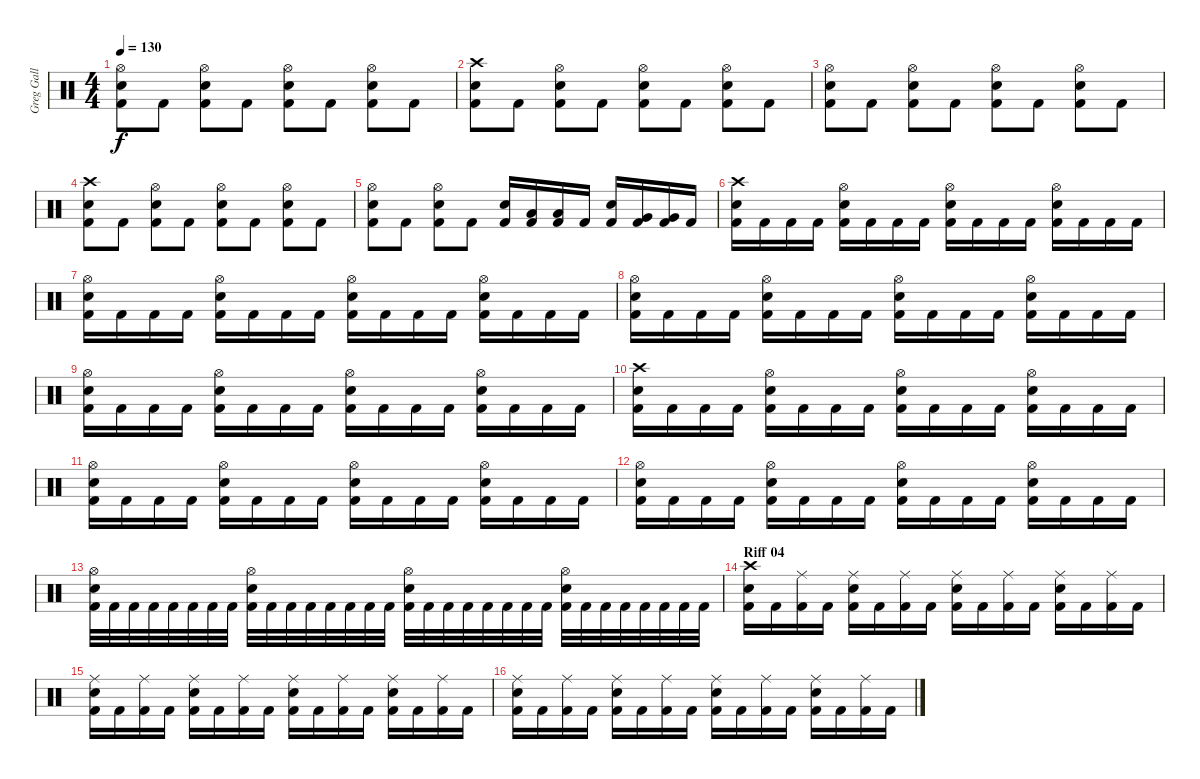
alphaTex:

\track ("Greg Gall" "Greg Gall") {instrument percussion}
\staff {score}
\articulation defaults
\ts (4 4)
\tempo 130
\clef neutral
\ks c
("Hi-Hat (open)" "Electric Snare (hit)" "Kick (hit) 2").8{dy f} "Kick (hit) 2".8 ("Hi-Hat (open)" "Electric Snare (hit)" "Kick (hit) 2").8 "Kick (hit) 2".8 ("Hi-Hat (open)" "Electric Snare (hit)" "Kick (hit) 2").8 "Kick (hit) 2".8 ("Hi-Hat (open)" "Electric Snare (hit)" "Kick (hit) 2").8 "Kick (hit) 2".8 |
("Crash high (hit)" "Electric Snare (hit)" "Kick (hit) 2").8 "Kick (hit) 2".8 ("Hi-Hat (open)" "Electric Snare (hit)" "Kick (hit) 2").8 "Kick (hit) 2".8 ("Hi-Hat (open)" "Electric Snare (hit)" "Kick (hit) 2").8 "Kick (hit) 2".8 ("Hi-Hat (open)" "Electric Snare (hit)" "Kick (hit) 2").8 "Kick (hit) 2".8 |
("Hi-Hat (open)" "Electric Snare (hit)" "Kick (hit) 2").8 "Kick (hit) 2".8 ("Hi-Hat (open)" "Electric Snare (hit)" "Kick (hit) 2").8 "Kick (hit) 2".8 ("Hi-Hat (open)" "Electric Snare (hit)" "Kick (hit) 2").8 "Kick (hit) 2".8 ("Hi-Hat (open)" "Electric Snare (hit)" "Kick (hit) 2").8 "Kick (hit) 2".8 |
("Crash high (hit)" "Electric Snare (hit)" "Kick (hit) 2").8 "Kick (hit) 2".8 ("Hi-Hat (open)" "Electric Snare (hit)" "Kick (hit) 2").8 "Kick (hit) 2".8 ("Hi-Hat (open)" "Electric Snare (hit)" "Kick (hit) 2").8 "Kick (hit) 2".8 ("Hi-Hat (open)" "Electric Snare (hit)" "Kick (hit) 2").8 "Kick (hit) 2".8 |
("Hi-Hat (open)" "Electric Snare (hit)" "Kick (hit) 2").8 "Kick (hit) 2".8 ("Hi-Hat (open)" "Electric Snare (hit)" "Kick (hit) 2").8 "Kick (hit) 2".8 ("Electric Snare (hit)" "Kick (hit) 2").16 ("Low Tom (hit)" "Kick (hit) 2").16 ("Low Tom (hit)" "Kick (hit) 2").16 "Kick (hit) 2".16 ("Electric Snare (hit)" "Kick (hit) 2").16 ("Very Low Tom (hit)" "Kick (hit) 2").16 ("Very Low Tom (hit)" "Kick (hit) 2").16 "Kick (hit) 2".16 |
("Crash high (hit)" "Electric Snare (hit)" "Kick (hit) 2").16 "Kick (hit) 2".16 "Kick (hit) 2".16 "Kick (hit) 2".16 ("Hi-Hat (open)" "Electric Snare (hit)" "Kick (hit) 2").16 "Kick (hit) 2".16 "Kick (hit) 2".16 "Kick (hit) 2".16 ("Hi-Hat (open)" "Electric Snare (hit)" "Kick (hit) 2").16 "Kick (hit) 2".16 "Kick (hit) 2".16 "Kick (hit) 2".16 ("Hi-Hat (open)" "Electric Snare (hit)" "Kick (hit) 2").16 "Kick (hit) 2".16 "Kick (hit) 2".16 "Kick (hit) 2".16 |
("Hi-Hat (open)" "Electric Snare (hit)" "Kick (hit) 2").16 "Kick (hit) 2".16 "Kick (hit) 2".16 "Kick (hit) 2".16 ("Hi-Hat (open)" "Electric Snare (hit)" "Kick (hit) 2").16 "Kick (hit) 2".16 "Kick (hit) 2".16 "Kick (hit) 2".16 ("Hi-Hat (open)" "Electric Snare (hit)" "Kick (hit) 2").16 "Kick (hit) 2".16 "Kick (hit) 2".16 "Kick (hit) 2".16 ("Hi-Hat (open)" "Electric Snare (hit)" "Kick (hit) 2").16 "Kick (hit) 2".16 "Kick (hit) 2".16 "Kick (hit) 2".16 |
("Hi-Hat (open)" "Electric Snare (hit)" "Kick (hit) 2").16 "Kick (hit) 2".16 "Kick (hit) 2".16 "Kick (hit) 2".16 ("Hi-Hat (open)" "Electric Snare (hit)" "Kick (hit) 2").16 "Kick (hit) 2".16 "Kick (hit) 2".16 "Kick (hit) 2".16 ("Hi-Hat (open)" "Electric Snare (hit)" "Kick (hit) 2").16 "Kick (hit) 2".16 "Kick (hit) 2".16 "Kick (hit) 2".16 ("Hi-Hat (open)" "Electric Snare (hit)" "Kick (hit) 2").16 "Kick (hit) 2".16 "Kick (hit) 2".16 "Kick (hit) 2".16 |
("Hi-Hat (open)" "Electric Snare (hit)" "Kick (hit) 2").16 "Kick (hit) 2".16 "Kick (hit) 2".16 "Kick (hit) 2".16 ("Hi-Hat (open)" "Electric Snare (hit)" "Kick (hit) 2").16 "Kick (hit) 2".16 "Kick (hit) 2".16 "Kick (hit) 2".16 ("Hi-Hat (open)" "Electric Snare (hit)" "Kick (hit) 2").16 "Kick (hit) 2".16 "Kick (hit) 2".16 "Kick (hit) 2".16 ("Hi-Hat (open)" "Electric Snare (hit)" "Kick (hit) 2").16 "Kick (hit) 2".16 "Kick (hit) 2".16 "Kick (hit) 2".16 |
("Crash high (hit)" "Electric Snare (hit)" "Kick (hit) 2").16 "Kick (hit) 2".16 "Kick (hit) 2".16 "Kick (hit) 2".16 ("Hi-Hat (open)" "Electric Snare (hit)" "Kick (hit) 2").16 "Kick (hit) 2".16 "Kick (hit) 2".16 "Kick (hit) 2".16 ("Hi-Hat (open)" "Electric Snare (hit)" "Kick (hit) 2").16 "Kick (hit) 2".16 "Kick (hit) 2".16 "Kick (hit) 2".16 ("Hi-Hat (open)" "Electric Snare (hit)" "Kick (hit) 2").16 "Kick (hit) 2".16 "Kick (hit) 2".16 "Kick (hit) 2".16 |
("Hi-Hat (open)" "Electric Snare (hit)" "Kick (hit) 2").16 "Kick (hit) 2".16 "Kick (hit) 2".16 "Kick (hit) 2".16 ("Hi-Hat (open)" "Electric Snare (hit)" "Kick (hit) 2").16 "Kick (hit) 2".16 "Kick (hit) 2".16 "Kick (hit) 2".16 ("Hi-Hat (open)" "Electric Snare (hit)" "Kick (hit) 2").16 "Kick (hit) 2".16 "Kick (hit) 2".16 "Kick (hit) 2".16 ("Hi-Hat (open)" "Electric Snare (hit)" "Kick (hit) 2").16 "Kick (hit) 2".16 "Kick (hit) 2".16 "Kick (hit) 2".16 |
("Hi-Hat (open)" "Electric Snare (hit)" "Kick (hit) 2").16 "Kick (hit) 2".16 "Kick (hit) 2".16 "Kick (hit) 2".16 ("Hi-Hat (open)" "Electric Snare (hit)" "Kick (hit) 2").16 "Kick (hit) 2".16 "Kick (hit) 2".16 "Kick (hit) 2".16 ("Hi-Hat (open)" "Electric Snare (hit)" "Kick (hit) 2").16 "Kick (hit) 2".16 "Kick (hit) 2".16 "Kick (hit) 2".16 ("Hi-Hat (open)" "Electric Snare (hit)" "Kick (hit) 2").16 "Kick (hit) 2".16 "Kick (hit) 2".16 "Kick (hit) 2".16 |
("Hi-Hat (open)" "Electric Snare (hit)" "Kick (hit) 2").32 "Kick (hit) 2".32 "Kick (hit) 2".32 "Kick (hit) 2".32 "Kick (hit) 2".32 "Kick (hit) 2".32 "Kick (hit) 2".32 "Kick (hit) 2".32 ("Hi-Hat (open)" "Electric Snare (hit)" "Kick (hit) 2").32 "Kick (hit) 2".32 "Kick (hit) 2".32 "Kick (hit) 2".32 "Kick (hit) 2".32 "Kick (hit) 2".32 "Kick (hit) 2".32 "Kick (hit) 2".32 ("Hi-Hat (open)" "Electric Snare (hit)" "Kick (hit) 2").32 "Kick (hit) 2".32 "Kick (hit) 2".32 "Kick (hit) 2".32 "Kick (hit) 2".32 "Kick (hit) 2".32 "Kick (hit) 2".32 "Kick (hit) 2".32 ("Hi-Hat (open)" "Electric Snare (hit)" "Kick (hit) 2").32 "Kick (hit) 2".32 "Kick (hit) 2".32 "Kick (hit) 2".32 "Kick (hit) 2".32 "Kick (hit) 2".32 "Kick (hit) 2".32 "Kick (hit) 2".32 |
\section ("" "Riff 04")
("Crash high (hit)" "Electric Snare (hit)" "Kick (hit) 2").16 "Kick (hit) 2".16 ("Ride (middle)" "Kick (hit) 2").16 "Kick (hit) 2".16 ("Ride (middle)" "Electric Snare (hit)" "Kick (hit) 2").16 "Kick (hit) 2".16 ("Ride (middle)" "Kick (hit) 2").16 "Kick (hit) 2".16 ("Ride (middle)" "Electric Snare (hit)" "Kick (hit) 2").16 "Kick (hit) 2".16 ("Ride (middle)" "Kick (hit) 2").16 "Kick (hit) 2".16 ("Ride (middle)" "Electric Snare (hit)" "Kick (hit) 2").16 "Kick (hit) 2".16 ("Ride (middle)" "Kick (hit) 2").16 "Kick (hit) 2".16 |
("Ride (middle)" "Electric Snare (hit)" "Kick (hit) 2").16 "Kick (hit) 2".16 ("Ride (middle)" "Kick (hit) 2").16 "Kick (hit) 2".16 ("Ride (middle)" "Electric Snare (hit)" "Kick (hit) 2").16 "Kick (hit) 2".16 ("Ride (middle)" "Kick (hit) 2").16 "Kick (hit) 2".16 ("Ride (middle)" "Electric Snare (hit)" "Kick (hit) 2").16 "Kick (hit) 2".16 ("Ride (middle)" "Kick (hit) 2").16 "Kick (hit) 2".16 ("Ride (middle)" "Electric Snare (hit)" "Kick (hit) 2").16 "Kick (hit) 2".16 ("Ride (middle)" "Kick (hit) 2").16 "Kick (hit) 2".16 |
("Ride (middle)" "Electric Snare (hit)" "Kick (hit) 2").16 "Kick (hit) 2".16 ("Ride (middle)" "Kick (hit) 2").16 "Kick (hit) 2".16 ("Ride (middle)" "Electric Snare (hit)" "Kick (hit) 2").16 "Kick (hit) 2".16 ("Ride (middle)" "Kick (hit) 2").16 "Kick (hit) 2".16 ("Ride (middle)" "Electric Snare (hit)" "Kick (hit) 2").16 "Kick (hit) 2".16 ("Ride (middle)" "Kick (hit) 2").16 "Kick (hit) 2".16 ("Ride (middle)" "Electric Snare (hit)" "Kick (hit) 2").16 "Kick (hit) 2".16 ("Ride (middle)" "Kick (hit) 2").16 "Kick (hit) 2".16
